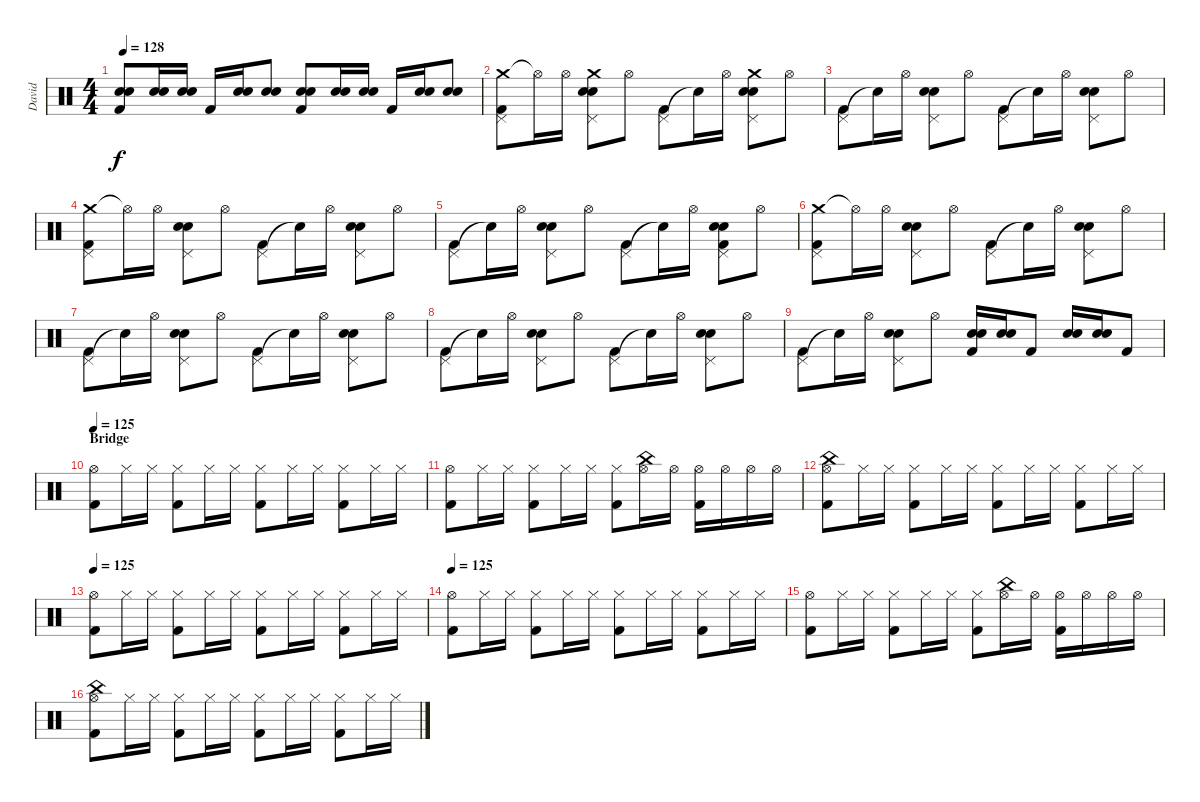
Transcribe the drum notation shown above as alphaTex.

\track ("David" "David") {instrument percussion}
\staff {score}
\articulation defaults
\ts (4 4)
\tempo 128
\clef neutral
\ks c
("Snare (hit) 2" "Electric Snare (hit)" "Kick (hit) 2").8{dy f} ("Snare (hit) 2" "Electric Snare (hit)").16 ("Snare (hit) 2" "Electric Snare (hit)").16 "Kick (hit) 2".16 ("Snare (hit) 2" "Electric Snare (hit)").16 ("Snare (hit) 2" "Electric Snare (hit)").8 ("Snare (hit) 2" "Electric Snare (hit)" "Kick (hit) 2").8 ("Snare (hit) 2" "Electric Snare (hit)").16 ("Snare (hit) 2" "Electric Snare (hit)").16 "Kick (hit) 2".16 ("Snare (hit) 2" "Electric Snare (hit)").16 ("Snare (hit) 2" "Electric Snare (hit)").8 |
("Crash medium (hit)" "Pedal Hi-Hat (hit)" "Kick (hit) 2").8 "Hi-Hat (open)"{t}.16 "Hi-Hat (open)".16 ("Snare (hit) 2" "Electric Snare (hit)" "Crash medium (hit)" "Pedal Hi-Hat (hit)").8 "Hi-Hat (open)".8 ("Pedal Hi-Hat (hit)" "Kick (hit) 2").8 "Snare (hit)"{t}.16 "Hi-Hat (open)".16 ("Crash medium (hit)" "Electric Snare (hit)" "Snare (hit) 2" "Pedal Hi-Hat (hit)").8 "Hi-Hat (open)".8 |
("Pedal Hi-Hat (hit)" "Kick (hit) 2").8 "Snare (hit)"{t}.16 "Hi-Hat (open)".16 ("Electric Snare (hit)" "Snare (hit) 2" "Pedal Hi-Hat (hit)").8 "Hi-Hat (open)".8 ("Pedal Hi-Hat (hit)" "Kick (hit) 2").8 "Snare (hit)"{t}.16 "Hi-Hat (open)".16 ("Electric Snare (hit)" "Snare (hit) 2" "Pedal Hi-Hat (hit)").8 "Hi-Hat (open)".8 |
("Crash medium (hit)" "Pedal Hi-Hat (hit)" "Kick (hit) 2").8 "Hi-Hat (open)"{t}.16 "Hi-Hat (open)".16 ("Electric Snare (hit)" "Snare (hit) 2" "Pedal Hi-Hat (hit)").8 "Hi-Hat (open)".8 ("Pedal Hi-Hat (hit)" "Kick (hit) 2").8 "Snare (hit)"{t}.16 "Hi-Hat (open)".16 ("Electric Snare (hit)" "Snare (hit) 2" "Pedal Hi-Hat (hit)").8 "Hi-Hat (open)".8 |
("Pedal Hi-Hat (hit)" "Kick (hit) 2").8 "Snare (hit)"{t}.16 "Hi-Hat (open)".16 ("Electric Snare (hit)" "Snare (hit) 2" "Pedal Hi-Hat (hit)").8 "Hi-Hat (open)".8 ("Pedal Hi-Hat (hit)" "Kick (hit) 2").8 "Snare (hit)"{t}.16 "Hi-Hat (open)".16 ("Snare (hit) 2" "Electric Snare (hit)" "Kick (hit) 2" "Pedal Hi-Hat (hit)").8 "Hi-Hat (open)".8 |
("Crash medium (hit)" "Pedal Hi-Hat (hit)" "Kick (hit) 2").8 "Hi-Hat (open)"{t}.16 "Hi-Hat (open)".16 ("Electric Snare (hit)" "Snare (hit) 2" "Pedal Hi-Hat (hit)").8 "Hi-Hat (open)".8 ("Pedal Hi-Hat (hit)" "Kick (hit) 2").8 "Snare (hit)"{t}.16 "Hi-Hat (open)".16 ("Electric Snare (hit)" "Snare (hit) 2" "Pedal Hi-Hat (hit)").8 "Hi-Hat (open)".8 |
("Pedal Hi-Hat (hit)" "Kick (hit) 2").8 "Snare (hit)"{t}.16 "Hi-Hat (open)".16 ("Electric Snare (hit)" "Snare (hit) 2" "Pedal Hi-Hat (hit)").8 "Hi-Hat (open)".8 ("Pedal Hi-Hat (hit)" "Kick (hit) 2").8 "Snare (hit)"{t}.16 "Hi-Hat (open)".16 ("Electric Snare (hit)" "Pedal Hi-Hat (hit)" "Snare (hit) 2").8 "Hi-Hat (open)".8 |
("Pedal Hi-Hat (hit)" "Kick (hit) 2").8 "Snare (hit)"{t}.16 "Hi-Hat (open)".16 ("Electric Snare (hit)" "Snare (hit) 2" "Pedal Hi-Hat (hit)").8 "Hi-Hat (open)".8 ("Pedal Hi-Hat (hit)" "Kick (hit) 2").8 "Snare (hit)"{t}.16 "Hi-Hat (open)".16 ("Electric Snare (hit)" "Pedal Hi-Hat (hit)" "Snare (hit) 2").8 "Hi-Hat (open)".8 |
("Pedal Hi-Hat (hit)" "Kick (hit) 2").8 "Snare (hit)"{t}.16 "Hi-Hat (open)".16 ("Electric Snare (hit)" "Snare (hit) 2" "Pedal Hi-Hat (hit)").8 "Hi-Hat (open)".8 ("Electric Snare (hit)" "Snare (hit) 2" "Kick (hit) 2").16 ("Electric Snare (hit)" "Snare (hit) 2").16 "Kick (hit) 2".8 ("Electric Snare (hit)" "Snare (hit) 2").16 ("Electric Snare (hit)" "Snare (hit) 2").16 "Kick (hit) 2".8 |
\section ("" "Bridge")
\tempo 125
("Hi-Hat (open)" "Kick (hit) 2").8 "Hi-Hat (closed)".16 "Hi-Hat (closed)".16 ("Hi-Hat (closed)" "Kick (hit) 2").8 "Hi-Hat (closed)".16 "Hi-Hat (closed)".16 ("Hi-Hat (closed)" "Kick (hit) 2").8 "Hi-Hat (closed)".16 "Hi-Hat (closed)".16 ("Hi-Hat (closed)" "Kick (hit) 2").8 "Hi-Hat (closed)".16 "Hi-Hat (closed)".16 |
("Hi-Hat (open)" "Kick (hit) 2").8 "Hi-Hat (closed)".16 "Hi-Hat (closed)".16 ("Hi-Hat (closed)" "Kick (hit) 2").8 "Hi-Hat (closed)".16 "Hi-Hat (closed)".16 ("Hi-Hat (closed)" "Kick (hit) 2").8 ("China (hit)" "Hi-Hat (open)").16 "Hi-Hat (open)".16 ("Hi-Hat (open)" "Kick (hit) 2").16 "Hi-Hat (open)".16 "Hi-Hat (open)".16 "Hi-Hat (open)".16 |
("China (hit)" "Hi-Hat (open)" "Kick (hit) 2").8 "Hi-Hat (closed)".16 "Hi-Hat (closed)".16 ("Hi-Hat (closed)" "Kick (hit) 2").8 "Hi-Hat (closed)".16 "Hi-Hat (closed)".16 ("Hi-Hat (closed)" "Kick (hit) 2").8 "Hi-Hat (closed)".16 "Hi-Hat (closed)".16 ("Hi-Hat (closed)" "Kick (hit) 2").8 "Hi-Hat (closed)".16 "Hi-Hat (closed)".16 |
\tempo 125
("Hi-Hat (open)" "Kick (hit) 2").8 "Hi-Hat (closed)".16 "Hi-Hat (closed)".16 ("Hi-Hat (closed)" "Kick (hit) 2").8 "Hi-Hat (closed)".16 "Hi-Hat (closed)".16 ("Hi-Hat (closed)" "Kick (hit) 2").8 "Hi-Hat (closed)".16 "Hi-Hat (closed)".16 ("Hi-Hat (closed)" "Kick (hit) 2").8 "Hi-Hat (closed)".16 "Hi-Hat (closed)".16 |
\tempo 125
("Hi-Hat (open)" "Kick (hit) 2").8 "Hi-Hat (closed)".16 "Hi-Hat (closed)".16 ("Hi-Hat (closed)" "Kick (hit) 2").8 "Hi-Hat (closed)".16 "Hi-Hat (closed)".16 ("Hi-Hat (closed)" "Kick (hit) 2").8 "Hi-Hat (closed)".16 "Hi-Hat (closed)".16 ("Hi-Hat (closed)" "Kick (hit) 2").8 "Hi-Hat (closed)".16 "Hi-Hat (closed)".16 |
("Hi-Hat (open)" "Kick (hit) 2").8 "Hi-Hat (closed)".16 "Hi-Hat (closed)".16 ("Hi-Hat (closed)" "Kick (hit) 2").8 "Hi-Hat (closed)".16 "Hi-Hat (closed)".16 ("Hi-Hat (closed)" "Kick (hit) 2").8 ("China (hit)" "Hi-Hat (open)").16 "Hi-Hat (open)".16 ("Hi-Hat (open)" "Kick (hit) 2").16 "Hi-Hat (open)".16 "Hi-Hat (open)".16 "Hi-Hat (open)".16 |
("China (hit)" "Hi-Hat (open)" "Kick (hit) 2").8 "Hi-Hat (closed)".16 "Hi-Hat (closed)".16 ("Hi-Hat (closed)" "Kick (hit) 2").8 "Hi-Hat (closed)".16 "Hi-Hat (closed)".16 ("Hi-Hat (closed)" "Kick (hit) 2").8 "Hi-Hat (closed)".16 "Hi-Hat (closed)".16 ("Hi-Hat (closed)" "Kick (hit) 2").8 "Hi-Hat (closed)".16 "Hi-Hat (closed)".16
